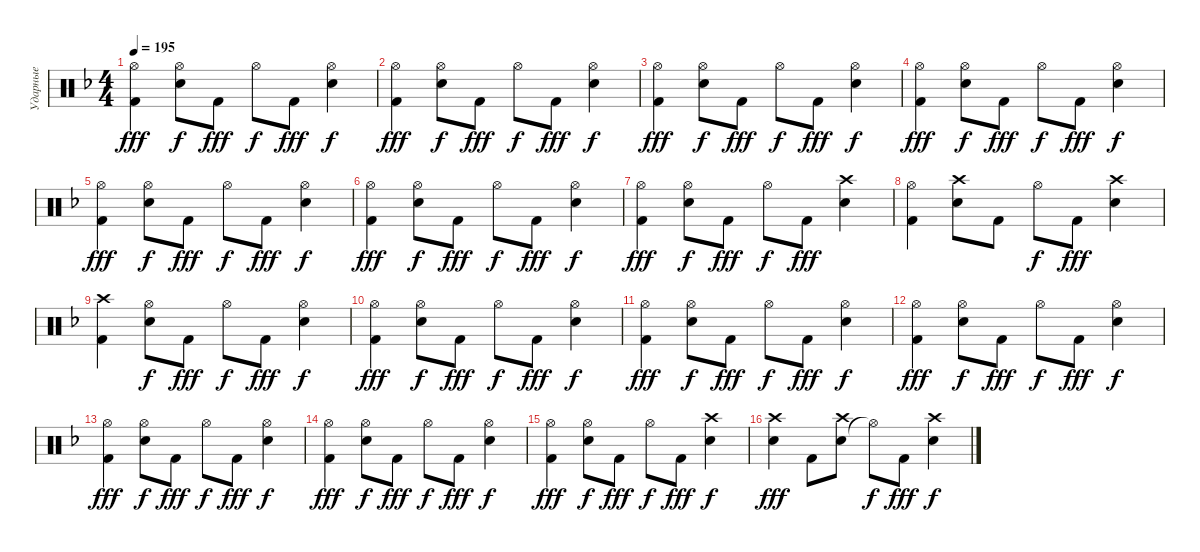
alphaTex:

\track ("Ударные" "Ударные") {instrument percussion}
\staff {score}
\articulation defaults
\ts (4 4)
\tempo 195
\clef neutral
\ks f
("Kick (hit) 2" "Hi-Hat (open)").4{dy fff} ("Snare (hit) 2" "Hi-Hat (open)").8{dy f} "Kick (hit) 2".8{dy fff} "Hi-Hat (open)".8{dy f} "Kick (hit) 2".8{dy fff} ("Snare (hit) 2" "Hi-Hat (open)").4{dy f} |
("Kick (hit) 2" "Hi-Hat (open)").4{dy fff} ("Snare (hit) 2" "Hi-Hat (open)").8{dy f} "Kick (hit) 2".8{dy fff} "Hi-Hat (open)".8{dy f} "Kick (hit) 2".8{dy fff} ("Snare (hit) 2" "Hi-Hat (open)").4{dy f} |
("Kick (hit) 2" "Hi-Hat (open)").4{dy fff} ("Snare (hit) 2" "Hi-Hat (open)").8{dy f} "Kick (hit) 2".8{dy fff} "Hi-Hat (open)".8{dy f} "Kick (hit) 2".8{dy fff} ("Snare (hit) 2" "Hi-Hat (open)").4{dy f} |
("Kick (hit) 2" "Hi-Hat (open)").4{dy fff} ("Snare (hit) 2" "Hi-Hat (open)").8{dy f} "Kick (hit) 2".8{dy fff} "Hi-Hat (open)".8{dy f} "Kick (hit) 2".8{dy fff} ("Snare (hit) 2" "Hi-Hat (open)").4{dy f} |
("Kick (hit) 2" "Hi-Hat (open)").4{dy fff} ("Snare (hit) 2" "Hi-Hat (open)").8{dy f} "Kick (hit) 2".8{dy fff} "Hi-Hat (open)".8{dy f} "Kick (hit) 2".8{dy fff} ("Snare (hit) 2" "Hi-Hat (open)").4{dy f} |
("Kick (hit) 2" "Hi-Hat (open)").4{dy fff} ("Snare (hit) 2" "Hi-Hat (open)").8{dy f} "Kick (hit) 2".8{dy fff} "Hi-Hat (open)".8{dy f} "Kick (hit) 2".8{dy fff} ("Snare (hit) 2" "Hi-Hat (open)").4{dy f} |
("Kick (hit) 2" "Hi-Hat (open)").4{dy fff} ("Snare (hit) 2" "Hi-Hat (open)").8{dy f} "Kick (hit) 2".8{dy fff} "Hi-Hat (open)".8{dy f} "Kick (hit) 2".8{dy fff} ("Snare (hit) 2" "Crash high (hit)").4 |
("Kick (hit) 2" "Hi-Hat (open)").4 ("Snare (hit) 2" "Crash high (hit)").8 "Kick (hit) 2".8 "Hi-Hat (open)".8{dy f} "Kick (hit) 2".8{dy fff} ("Snare (hit) 2" "Crash high (hit)").4 |
("Kick (hit) 2" "Crash high (hit)").4 ("Snare (hit) 2" "Hi-Hat (open)").8{dy f} "Kick (hit) 2".8{dy fff} "Hi-Hat (open)".8{dy f} "Kick (hit) 2".8{dy fff} ("Snare (hit) 2" "Hi-Hat (open)").4{dy f} |
("Kick (hit) 2" "Hi-Hat (open)").4{dy fff} ("Snare (hit) 2" "Hi-Hat (open)").8{dy f} "Kick (hit) 2".8{dy fff} "Hi-Hat (open)".8{dy f} "Kick (hit) 2".8{dy fff} ("Snare (hit) 2" "Hi-Hat (open)").4{dy f} |
("Kick (hit) 2" "Hi-Hat (open)").4{dy fff} ("Snare (hit) 2" "Hi-Hat (open)").8{dy f} "Kick (hit) 2".8{dy fff} "Hi-Hat (open)".8{dy f} "Kick (hit) 2".8{dy fff} ("Snare (hit) 2" "Hi-Hat (open)").4{dy f} |
("Kick (hit) 2" "Hi-Hat (open)").4{dy fff} ("Snare (hit) 2" "Hi-Hat (open)").8{dy f} "Kick (hit) 2".8{dy fff} "Hi-Hat (open)".8{dy f} "Kick (hit) 2".8{dy fff} ("Snare (hit) 2" "Hi-Hat (open)").4{dy f} |
("Kick (hit) 2" "Hi-Hat (open)").4{dy fff} ("Snare (hit) 2" "Hi-Hat (open)").8{dy f} "Kick (hit) 2".8{dy fff} "Hi-Hat (open)".8{dy f} "Kick (hit) 2".8{dy fff} ("Snare (hit) 2" "Hi-Hat (open)").4{dy f} |
("Kick (hit) 2" "Hi-Hat (open)").4{dy fff} ("Snare (hit) 2" "Hi-Hat (open)").8{dy f} "Kick (hit) 2".8{dy fff} "Hi-Hat (open)".8{dy f} "Kick (hit) 2".8{dy fff} ("Snare (hit) 2" "Hi-Hat (open)").4{dy f} |
("Kick (hit) 2" "Hi-Hat (open)").4{dy fff} ("Snare (hit) 2" "Hi-Hat (open)").8{dy f} "Kick (hit) 2".8{dy fff} "Hi-Hat (open)".8{dy f} "Kick (hit) 2".8{dy fff} ("Snare (hit) 2" "Crash high (hit)").4{dy f} |
("Snare (hit) 2" "Crash high (hit)").4{dy fff} "Kick (hit) 2".8 ("Snare (hit) 2" "Crash high (hit)").8 "Hi-Hat (open)"{t}.8{dy f} "Kick (hit) 2".8{dy fff} ("Snare (hit) 2" "Crash high (hit)").4{dy f}
